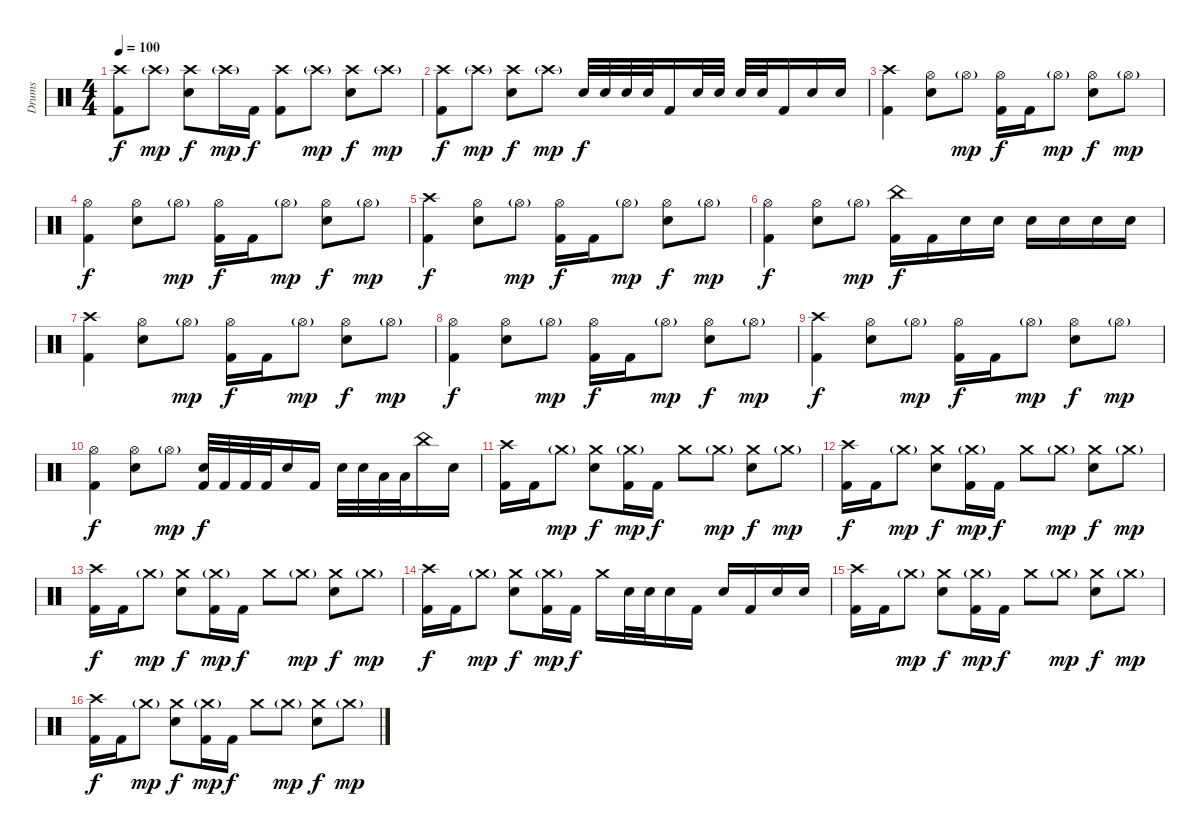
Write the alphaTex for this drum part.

\track ("Drums" "Drums") {instrument percussion}
\staff {score}
\articulation defaults
\ts (4 4)
\tempo 100
\clef neutral
\ks c
("Crash high (hit)" "Kick (hit) 2").8{dy f} "Crash high (hit)"{g}.8{dy mp} ("Crash high (hit)" "Snare (hit) 2").8{dy f} "Crash high (hit)"{g}.16{dy mp} "Kick (hit) 2".16{dy f} ("Crash high (hit)" "Kick (hit) 2").8 "Crash high (hit)"{g}.8{dy mp} ("Crash high (hit)" "Snare (hit) 2").8{dy f} "Crash high (hit)"{g}.8{dy mp} |
("Crash high (hit)" "Kick (hit) 2").8{dy f} "Crash high (hit)"{g}.8{dy mp} ("Crash high (hit)" "Snare (hit) 2").8{dy f} "Crash high (hit)"{g}.8{dy mp} "Snare (hit) 2".32{dy f} "Snare (hit) 2".32 "Snare (hit) 2".32 "Snare (hit) 2".32 "Kick (hit) 2".16 "Snare (hit) 2".32 "Snare (hit) 2".32 "Snare (hit) 2".32 "Snare (hit) 2".32 "Kick (hit) 2".16 "Snare (hit) 2".16 "Snare (hit) 2".16 |
("Crash high (hit)" "Kick (hit) 2").4 ("Hi-Hat (open)" "Snare (hit) 2").8 "Hi-Hat (open)"{g}.8{dy mp} ("Hi-Hat (open)" "Kick (hit) 2").16{dy f} "Kick (hit) 2".16 "Hi-Hat (open)"{g}.8{dy mp} ("Hi-Hat (open)" "Snare (hit) 2").8{dy f} "Hi-Hat (open)"{g}.8{dy mp} |
("Hi-Hat (open)" "Kick (hit) 2").4{dy f} ("Hi-Hat (open)" "Snare (hit) 2").8 "Hi-Hat (open)"{g}.8{dy mp} ("Hi-Hat (open)" "Kick (hit) 2").16{dy f} "Kick (hit) 2".16 "Hi-Hat (open)"{g}.8{dy mp} ("Hi-Hat (open)" "Snare (hit) 2").8{dy f} "Hi-Hat (open)"{g}.8{dy mp} |
("Crash high (hit)" "Kick (hit) 2").4{dy f} ("Hi-Hat (open)" "Snare (hit) 2").8 "Hi-Hat (open)"{g}.8{dy mp} ("Hi-Hat (open)" "Kick (hit) 2").16{dy f} "Kick (hit) 2".16 "Hi-Hat (open)"{g}.8{dy mp} ("Hi-Hat (open)" "Snare (hit) 2").8{dy f} "Hi-Hat (open)"{g}.8{dy mp} |
("Hi-Hat (open)" "Kick (hit) 2").4{dy f} ("Hi-Hat (open)" "Snare (hit) 2").8 "Hi-Hat (open)"{g}.8{dy mp} ("China (hit)" "Kick (hit) 2").16{dy f} "Kick (hit) 2".16 "Snare (hit) 2".16 "Snare (hit) 2".16 "Snare (hit) 2".16 "Snare (hit) 2".16 "Snare (hit) 2".16 "Snare (hit) 2".16 |
("Crash high (hit)" "Kick (hit) 2").4 ("Hi-Hat (open)" "Snare (hit) 2").8 "Hi-Hat (open)"{g}.8{dy mp} ("Hi-Hat (open)" "Kick (hit) 2").16{dy f} "Kick (hit) 2".16 "Hi-Hat (open)"{g}.8{dy mp} ("Hi-Hat (open)" "Snare (hit) 2").8{dy f} "Hi-Hat (open)"{g}.8{dy mp} |
("Hi-Hat (open)" "Kick (hit) 2").4{dy f} ("Hi-Hat (open)" "Snare (hit) 2").8 "Hi-Hat (open)"{g}.8{dy mp} ("Hi-Hat (open)" "Kick (hit) 2").16{dy f} "Kick (hit) 2".16 "Hi-Hat (open)"{g}.8{dy mp} ("Hi-Hat (open)" "Snare (hit) 2").8{dy f} "Hi-Hat (open)"{g}.8{dy mp} |
("Crash high (hit)" "Kick (hit) 2").4{dy f} ("Hi-Hat (open)" "Snare (hit) 2").8 "Hi-Hat (open)"{g}.8{dy mp} ("Hi-Hat (open)" "Kick (hit) 2").16{dy f} "Kick (hit) 2".16 "Hi-Hat (open)"{g}.8{dy mp} ("Hi-Hat (open)" "Snare (hit) 2").8{dy f} "Hi-Hat (open)"{g}.8{dy mp} |
("Hi-Hat (open)" "Kick (hit) 2").4{dy f} ("Hi-Hat (open)" "Snare (hit) 2").8 "Hi-Hat (open)"{g}.8{dy mp} ("Snare (hit) 2" "Kick (hit) 2").32{dy f} "Kick (hit) 2".32 "Kick (hit) 2".32 "Kick (hit) 2".32 "Snare (hit) 2".16 "Kick (hit) 2".16 "Snare (hit) 2".32 "Snare (hit) 2".32 "Low Tom (hit)".32 "Low Tom (hit)".32 "China (hit)".16 "Snare (hit) 2".16 |
("Crash high (hit)" "Kick (hit) 2").16 "Kick (hit) 2".16 "Crash medium (hit)"{g}.8{dy mp} ("Crash medium (hit)" "Snare (hit) 2").8{dy f} ("Crash medium (hit)"{g} "Kick (hit) 2").16{dy mp} "Kick (hit) 2".16{dy f} "Crash medium (hit)".8 "Crash medium (hit)"{g}.8{dy mp} ("Crash medium (hit)" "Snare (hit) 2").8{dy f} "Crash medium (hit)"{g}.8{dy mp} |
("Crash high (hit)" "Kick (hit) 2").16{dy f} "Kick (hit) 2".16 "Crash medium (hit)"{g}.8{dy mp} ("Crash medium (hit)" "Snare (hit) 2").8{dy f} ("Crash medium (hit)"{g} "Kick (hit) 2").16{dy mp} "Kick (hit) 2".16{dy f} "Crash medium (hit)".8 "Crash medium (hit)"{g}.8{dy mp} ("Crash medium (hit)" "Snare (hit) 2").8{dy f} "Crash medium (hit)"{g}.8{dy mp} |
("Crash high (hit)" "Kick (hit) 2").16{dy f} "Kick (hit) 2".16 "Crash medium (hit)"{g}.8{dy mp} ("Crash medium (hit)" "Snare (hit) 2").8{dy f} ("Crash medium (hit)"{g} "Kick (hit) 2").16{dy mp} "Kick (hit) 2".16{dy f} "Crash medium (hit)".8 "Crash medium (hit)"{g}.8{dy mp} ("Crash medium (hit)" "Snare (hit) 2").8{dy f} "Crash medium (hit)"{g}.8{dy mp} |
("Crash high (hit)" "Kick (hit) 2").16{dy f} "Kick (hit) 2".16 "Crash medium (hit)"{g}.8{dy mp} ("Crash medium (hit)" "Snare (hit) 2").8{dy f} ("Crash medium (hit)"{g} "Kick (hit) 2").16{dy mp} "Kick (hit) 2".16{dy f} "Crash medium (hit)".16 "Snare (hit) 2".32 "Snare (hit) 2".32 "Snare (hit) 2".16 "Kick (hit) 2".16 "Snare (hit) 2".16 "Kick (hit) 2".16 "Snare (hit) 2".16 "Snare (hit) 2".16 |
("Crash high (hit)" "Kick (hit) 2").16 "Kick (hit) 2".16 "Crash medium (hit)"{g}.8{dy mp} ("Crash medium (hit)" "Snare (hit) 2").8{dy f} ("Crash medium (hit)"{g} "Kick (hit) 2").16{dy mp} "Kick (hit) 2".16{dy f} "Crash medium (hit)".8 "Crash medium (hit)"{g}.8{dy mp} ("Crash medium (hit)" "Snare (hit) 2").8{dy f} "Crash medium (hit)"{g}.8{dy mp} |
("Crash high (hit)" "Kick (hit) 2").16{dy f} "Kick (hit) 2".16 "Crash medium (hit)"{g}.8{dy mp} ("Crash medium (hit)" "Snare (hit) 2").8{dy f} ("Crash medium (hit)"{g} "Kick (hit) 2").16{dy mp} "Kick (hit) 2".16{dy f} "Crash medium (hit)".8 "Crash medium (hit)"{g}.8{dy mp} ("Crash medium (hit)" "Snare (hit) 2").8{dy f} "Crash medium (hit)"{g}.8{dy mp}
